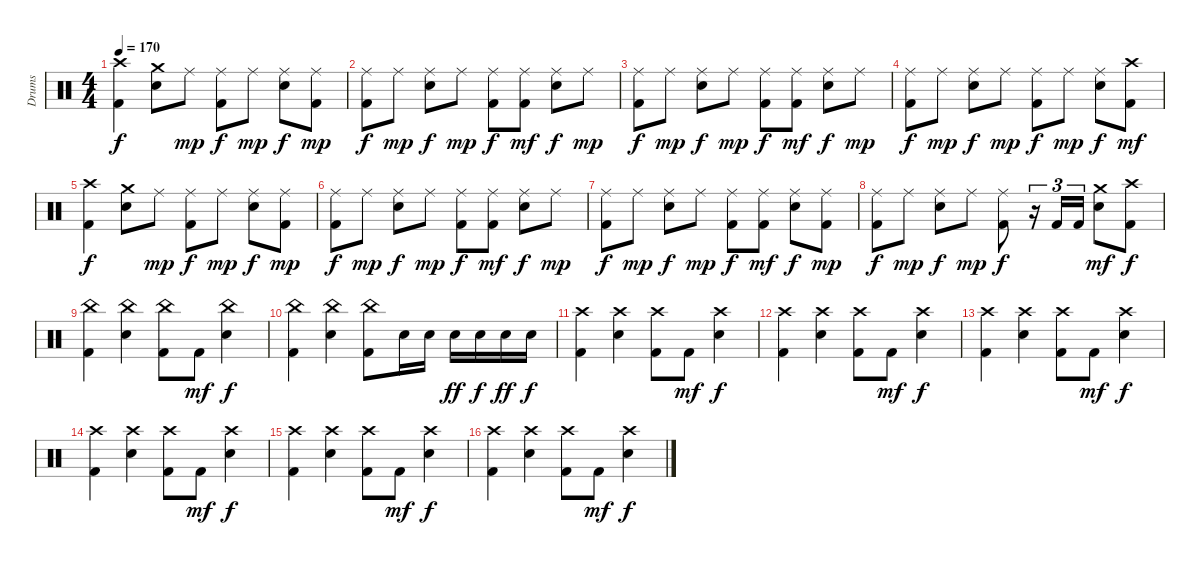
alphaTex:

\track ("Drums" "Drums") {instrument percussion}
\staff {score}
\articulation defaults
\ts (4 4)
\tempo 170
\clef neutral
\ks c
("Crash high (hit)" "Kick (hit) 2").4{dy f} ("Crash medium (hit)" "Snare (hit) 2").8 "Ride (middle)".8{dy mp} ("Ride (middle)" "Kick (hit) 2").8{dy f} "Ride (middle)".8{dy mp} ("Ride (middle)" "Snare (hit) 2").8{dy f} ("Ride (middle)" "Kick (hit) 2").8{dy mp} |
("Ride (middle)" "Kick (hit) 2").8{dy f} "Ride (middle)".8{dy mp} ("Ride (middle)" "Snare (hit) 2").8{dy f} "Ride (middle)".8{dy mp} ("Ride (middle)" "Kick (hit) 2").8{dy f} ("Ride (middle)" "Kick (hit) 2").8{dy mf} ("Ride (middle)" "Snare (hit) 2").8{dy f} "Ride (middle)".8{dy mp} |
("Ride (middle)" "Kick (hit) 2").8{dy f} "Ride (middle)".8{dy mp} ("Ride (middle)" "Snare (hit) 2").8{dy f} "Ride (middle)".8{dy mp} ("Ride (middle)" "Kick (hit) 2").8{dy f} ("Ride (middle)" "Kick (hit) 2").8{dy mf} ("Ride (middle)" "Snare (hit) 2").8{dy f} "Ride (middle)".8{dy mp} |
("Ride (middle)" "Kick (hit) 2").8{dy f} "Ride (middle)".8{dy mp} ("Ride (middle)" "Snare (hit) 2").8{dy f} "Ride (middle)".8{dy mp} ("Ride (middle)" "Kick (hit) 2").8{dy f} "Ride (middle)".8{dy mp} ("Ride (middle)" "Snare (hit) 2").8{dy f} ("Crash high (hit)" "Kick (hit) 2").8{dy mf} |
("Crash high (hit)" "Kick (hit) 2").4{dy f} ("Crash medium (hit)" "Snare (hit) 2").8 "Ride (middle)".8{dy mp} ("Ride (middle)" "Kick (hit) 2").8{dy f} "Ride (middle)".8{dy mp} ("Ride (middle)" "Snare (hit) 2").8{dy f} ("Ride (middle)" "Kick (hit) 2").8{dy mp} |
("Ride (middle)" "Kick (hit) 2").8{dy f} "Ride (middle)".8{dy mp} ("Ride (middle)" "Snare (hit) 2").8{dy f} "Ride (middle)".8{dy mp} ("Ride (middle)" "Kick (hit) 2").8{dy f} ("Ride (middle)" "Kick (hit) 2").8{dy mf} ("Ride (middle)" "Snare (hit) 2").8{dy f} "Ride (middle)".8{dy mp} |
("Ride (middle)" "Kick (hit) 2").8{dy f} "Ride (middle)".8{dy mp} ("Ride (middle)" "Snare (hit) 2").8{dy f} "Ride (middle)".8{dy mp} ("Ride (middle)" "Kick (hit) 2").8{dy f} ("Ride (middle)" "Kick (hit) 2").8{dy mf} ("Ride (middle)" "Snare (hit) 2").8{dy f} ("Ride (middle)" "Kick (hit) 2").8{dy mp} |
("Ride (middle)" "Kick (hit) 2").8{dy f} "Ride (middle)".8{dy mp} ("Ride (middle)" "Snare (hit) 2").8{dy f} "Ride (middle)".8{dy mp} ("Ride (middle)" "Kick (hit) 2").8{dy f} r.16{tu (3 2)} "Kick (hit) 2".16{tu (3 2)} "Kick (hit) 2".16{tu (3 2)} ("Crash medium (hit)" "Snare (hit) 2").8{dy mf} ("Crash high (hit)" "Kick (hit) 2").8{dy f} |
("China (hit)" "Kick (hit) 2").4 ("China (hit)" "Snare (hit) 2").4 ("China (hit)" "Kick (hit) 2").8 "Kick (hit) 2".8{dy mf} ("China (hit)" "Snare (hit) 2").4{dy f} |
("China (hit)" "Kick (hit) 2").4 ("China (hit)" "Snare (hit) 2").4 ("China (hit)" "Kick (hit) 2").8 "Snare (hit) 2".16 "Snare (hit) 2".16 "Snare (hit) 2".16{dy ff} "Snare (hit) 2".16{dy f} "Snare (hit) 2".16{dy ff} "Snare (hit) 2".16{dy f} |
("Crash high (hit)" "Kick (hit) 2").4 ("Crash high (hit)" "Snare (hit) 2").4 ("Crash high (hit)" "Kick (hit) 2").8 "Kick (hit) 2".8{dy mf} ("Crash high (hit)" "Snare (hit) 2").4{dy f} |
("Crash high (hit)" "Kick (hit) 2").4 ("Crash high (hit)" "Snare (hit) 2").4 ("Crash high (hit)" "Kick (hit) 2").8 "Kick (hit) 2".8{dy mf} ("Crash high (hit)" "Snare (hit) 2").4{dy f} |
("Crash high (hit)" "Kick (hit) 2").4 ("Crash high (hit)" "Snare (hit) 2").4 ("Crash high (hit)" "Kick (hit) 2").8 "Kick (hit) 2".8{dy mf} ("Crash high (hit)" "Snare (hit) 2").4{dy f} |
("Crash high (hit)" "Kick (hit) 2").4 ("Crash high (hit)" "Snare (hit) 2").4 ("Crash high (hit)" "Kick (hit) 2").8 "Kick (hit) 2".8{dy mf} ("Crash high (hit)" "Snare (hit) 2").4{dy f} |
("Crash high (hit)" "Kick (hit) 2").4 ("Crash high (hit)" "Snare (hit) 2").4 ("Crash high (hit)" "Kick (hit) 2").8 "Kick (hit) 2".8{dy mf} ("Crash high (hit)" "Snare (hit) 2").4{dy f} |
("Crash high (hit)" "Kick (hit) 2").4 ("Crash high (hit)" "Snare (hit) 2").4 ("Crash high (hit)" "Kick (hit) 2").8 "Kick (hit) 2".8{dy mf} ("Crash high (hit)" "Snare (hit) 2").4{dy f}
